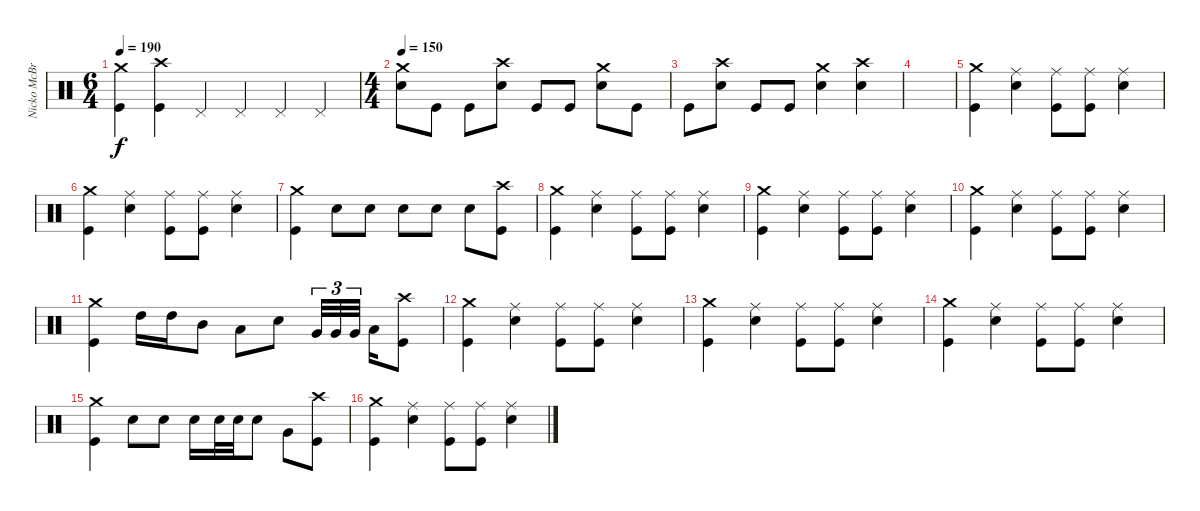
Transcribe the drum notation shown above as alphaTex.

\track ("Nicko McBrain" "Nicko McBr") {instrument percussion}
\staff {score}
\articulation defaults
\ts (6 4)
\tempo 190
\clef neutral
\ks c
("Crash medium (hit)" "Kick (hit)").4{dy f} ("Crash high (hit)" "Kick (hit)").4 "Pedal Hi-Hat (hit)".4 "Pedal Hi-Hat (hit)".4 "Pedal Hi-Hat (hit)".4 "Pedal Hi-Hat (hit)".4 |
\ts (4 4)
\tempo 150
("Crash medium (hit)" "Electric Snare (hit)").8 "Kick (hit)".8 "Kick (hit)".8 ("Crash high (hit)" "Electric Snare (hit)").8 "Kick (hit)".8 "Kick (hit)".8 ("Crash medium (hit)" "Electric Snare (hit)").8 "Kick (hit)".8 |
"Kick (hit)".8 ("Crash high (hit)" "Electric Snare (hit)").8 "Kick (hit)".8 "Kick (hit)".8 ("Crash medium (hit)" "Electric Snare (hit)").4 ("Crash high (hit)" "Electric Snare (hit)").4 |
|
("Kick (hit)" "Crash medium (hit)").4 ("Electric Snare (hit)" "Ride (middle)").4 ("Kick (hit)" "Ride (middle)").8 ("Kick (hit)" "Ride (middle)").8 ("Electric Snare (hit)" "Ride (middle)").4 |
("Kick (hit)" "Crash medium (hit)").4 ("Electric Snare (hit)" "Ride (middle)").4 ("Kick (hit)" "Ride (middle)").8 ("Kick (hit)" "Ride (middle)").8 ("Electric Snare (hit)" "Ride (middle)").4 |
("Kick (hit)" "Crash medium (hit)").4 "Electric Snare (hit)".8 "Electric Snare (hit)".8 "Electric Snare (hit)".8 "Electric Snare (hit)".8 "Electric Snare (hit)".8 ("Kick (hit)" "Crash high (hit)").8 |
("Kick (hit)" "Crash medium (hit)").4 ("Electric Snare (hit)" "Ride (middle)").4 ("Kick (hit)" "Ride (middle)").8 ("Kick (hit)" "Ride (middle)").8 ("Electric Snare (hit)" "Ride (middle)").4 |
("Kick (hit)" "Crash medium (hit)").4 ("Electric Snare (hit)" "Ride (middle)").4 ("Kick (hit)" "Ride (middle)").8 ("Kick (hit)" "Ride (middle)").8 ("Electric Snare (hit)" "Ride (middle)").4 |
("Kick (hit)" "Crash medium (hit)").4 ("Electric Snare (hit)" "Ride (middle)").4 ("Kick (hit)" "Ride (middle)").8 ("Kick (hit)" "Ride (middle)").8 ("Electric Snare (hit)" "Ride (middle)").4 |
("Kick (hit)" "Crash medium (hit)").4 "High Tom (hit)".16 "High Tom (hit)".16 "Mid Tom (hit)".8 "Low Tom (hit)".8 "Electric Snare (hit)".8 "Very Low Tom (hit)".32{tu (3 2)} "Very Low Tom (hit)".32{tu (3 2)} "Very Low Tom (hit)".32{tu (3 2)} "Low Floor Tom (hit)".16 ("Kick (hit)" "Crash high (hit)").8 |
("Kick (hit)" "Crash medium (hit)").4 ("Electric Snare (hit)" "Ride (middle)").4 ("Kick (hit)" "Ride (middle)").8 ("Kick (hit)" "Ride (middle)").8 ("Electric Snare (hit)" "Ride (middle)").4 |
("Kick (hit)" "Crash medium (hit)").4 ("Electric Snare (hit)" "Ride (middle)").4 ("Kick (hit)" "Ride (middle)").8 ("Kick (hit)" "Ride (middle)").8 ("Electric Snare (hit)" "Ride (middle)").4 |
("Kick (hit)" "Crash medium (hit)").4 ("Electric Snare (hit)" "Ride (middle)").4 ("Kick (hit)" "Ride (middle)").8 ("Kick (hit)" "Ride (middle)").8 ("Electric Snare (hit)" "Ride (middle)").4 |
("Kick (hit)" "Crash medium (hit)").4 "Electric Snare (hit)".8 "Electric Snare (hit)".8 "Electric Snare (hit)".16 "Electric Snare (hit)".32 "Electric Snare (hit)".32 "Electric Snare (hit)".8 "Very Low Tom (hit)".8 ("Kick (hit)" "Crash high (hit)").8 |
("Kick (hit)" "Crash medium (hit)").4 ("Electric Snare (hit)" "Ride (middle)").4 ("Kick (hit)" "Ride (middle)").8 ("Kick (hit)" "Ride (middle)").8 ("Electric Snare (hit)" "Ride (middle)").4
